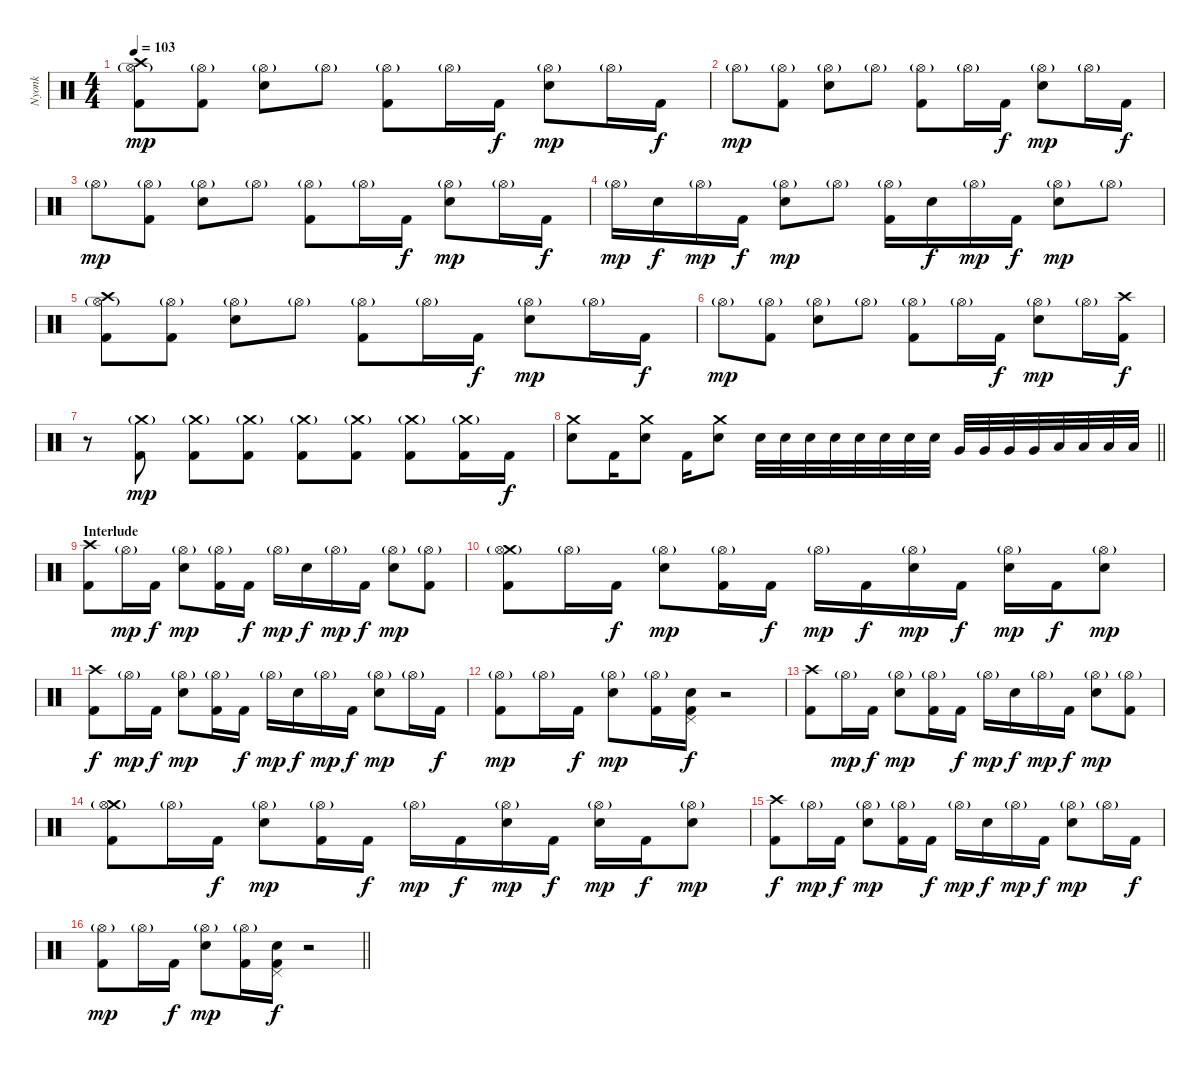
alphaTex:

\track ("Nyonk" "Nyonk") {instrument percussion}
\staff {score}
\articulation defaults
\ts (4 4)
\tempo 103
\clef neutral
\ks c
("Crash high (hit)" "Hi-Hat (open)"{g} "Kick (hit) 2").8{dy mp} ("Hi-Hat (open)"{g} "Kick (hit) 2").8 ("Hi-Hat (open)"{g} "Electric Snare (hit)").8 "Hi-Hat (open)"{g}.8 ("Hi-Hat (open)"{g} "Kick (hit) 2").8 "Hi-Hat (open)"{g}.16 "Kick (hit) 2".16{dy f} ("Hi-Hat (open)"{g} "Electric Snare (hit)").8{dy mp} "Hi-Hat (open)"{g}.16 "Kick (hit) 2".16{dy f} |
"Hi-Hat (open)"{g}.8{dy mp} ("Hi-Hat (open)"{g} "Kick (hit) 2").8 ("Hi-Hat (open)"{g} "Electric Snare (hit)").8 "Hi-Hat (open)"{g}.8 ("Hi-Hat (open)"{g} "Kick (hit) 2").8 "Hi-Hat (open)"{g}.16 "Kick (hit) 2".16{dy f} ("Hi-Hat (open)"{g} "Electric Snare (hit)").8{dy mp} "Hi-Hat (open)"{g}.16 "Kick (hit) 2".16{dy f} |
"Hi-Hat (open)"{g}.8{dy mp} ("Hi-Hat (open)"{g} "Kick (hit) 2").8 ("Hi-Hat (open)"{g} "Electric Snare (hit)").8 "Hi-Hat (open)"{g}.8 ("Hi-Hat (open)"{g} "Kick (hit) 2").8 "Hi-Hat (open)"{g}.16 "Kick (hit) 2".16{dy f} ("Hi-Hat (open)"{g} "Electric Snare (hit)").8{dy mp} "Hi-Hat (open)"{g}.16 "Kick (hit) 2".16{dy f} |
"Hi-Hat (open)"{g}.16{dy mp} "Electric Snare (hit)".16{dy f} "Hi-Hat (open)"{g}.16{dy mp} "Kick (hit) 2".16{dy f} ("Hi-Hat (open)"{g} "Electric Snare (hit)").8{dy mp} "Hi-Hat (open)"{g}.8 ("Hi-Hat (open)"{g} "Kick (hit) 2").16 "Electric Snare (hit)".16{dy f} "Hi-Hat (open)"{g}.16{dy mp} "Kick (hit) 2".16{dy f} ("Hi-Hat (open)"{g} "Electric Snare (hit)").8{dy mp} "Hi-Hat (open)"{g}.8 |
("Crash high (hit)" "Hi-Hat (open)"{g} "Kick (hit) 2").8 ("Hi-Hat (open)"{g} "Kick (hit) 2").8 ("Hi-Hat (open)"{g} "Electric Snare (hit)").8 "Hi-Hat (open)"{g}.8 ("Hi-Hat (open)"{g} "Kick (hit) 2").8 "Hi-Hat (open)"{g}.16 "Kick (hit) 2".16{dy f} ("Hi-Hat (open)"{g} "Electric Snare (hit)").8{dy mp} "Hi-Hat (open)"{g}.16 "Kick (hit) 2".16{dy f} |
"Hi-Hat (open)"{g}.8{dy mp} ("Hi-Hat (open)"{g} "Kick (hit) 2").8 ("Hi-Hat (open)"{g} "Electric Snare (hit)").8 "Hi-Hat (open)"{g}.8 ("Hi-Hat (open)"{g} "Kick (hit) 2").8 "Hi-Hat (open)"{g}.16 "Kick (hit) 2".16{dy f} ("Hi-Hat (open)"{g} "Electric Snare (hit)").8{dy mp} "Hi-Hat (open)"{g}.16 ("Crash high (hit)" "Kick (hit) 2").16{dy f} |
r.8 ("Crash medium (hit)"{g} "Kick (hit) 2").8{dy mp} ("Crash medium (hit)"{g} "Kick (hit) 2").8 ("Crash medium (hit)"{g} "Kick (hit) 2").8 ("Crash medium (hit)"{g} "Kick (hit) 2").8 ("Crash medium (hit)"{g} "Kick (hit) 2").8 ("Crash medium (hit)"{g} "Kick (hit) 2").8 ("Crash medium (hit)"{g} "Kick (hit) 2").16 "Kick (hit) 2".16{dy f} |
\barLineRight lightlight
("Crash medium (hit)" "Electric Snare (hit)").8 "Kick (hit) 2".16 ("Crash medium (hit)" "Electric Snare (hit)").8 "Kick (hit) 2".16 ("Crash medium (hit)" "Electric Snare (hit)").8 "Electric Snare (hit)".32 "Electric Snare (hit)".32 "Electric Snare (hit)".32 "Electric Snare (hit)".32 "Electric Snare (hit)".32 "Electric Snare (hit)".32 "Electric Snare (hit)".32 "Electric Snare (hit)".32 "Very Low Tom (hit)".32 "Very Low Tom (hit)".32 "Very Low Tom (hit)".32 "Very Low Tom (hit)".32 "Low Floor Tom (hit)".32 "Low Floor Tom (hit)".32 "Low Floor Tom (hit)".32 "Low Floor Tom (hit)".32 |
\section ("" "Interlude")
("Crash high (hit)" "Kick (hit) 2").8 "Hi-Hat (open)"{g}.16{dy mp} "Kick (hit) 2".16{dy f} ("Hi-Hat (open)"{g} "Electric Snare (hit)").8{dy mp} ("Hi-Hat (open)"{g} "Kick (hit) 2").16 "Kick (hit) 2".16{dy f} "Hi-Hat (open)"{g}.16{dy mp} "Electric Snare (hit)".16{dy f} "Hi-Hat (open)"{g}.16{dy mp} "Kick (hit) 2".16{dy f} ("Hi-Hat (open)"{g} "Electric Snare (hit)").8{dy mp} ("Hi-Hat (open)"{g} "Kick (hit) 2").8 |
("Crash medium (hit)" "Hi-Hat (open)"{g} "Kick (hit) 2").8 "Hi-Hat (open)"{g}.16 "Kick (hit) 2".16{dy f} ("Hi-Hat (open)"{g} "Electric Snare (hit)").8{dy mp} ("Hi-Hat (open)"{g} "Kick (hit) 2").16 "Kick (hit) 2".16{dy f} "Hi-Hat (open)"{g}.16{dy mp} "Kick (hit) 2".16{dy f} ("Hi-Hat (open)"{g} "Electric Snare (hit)").16{dy mp} "Kick (hit) 2".16{dy f} ("Hi-Hat (open)"{g} "Electric Snare (hit)").16{dy mp} "Kick (hit) 2".16{dy f} ("Hi-Hat (open)"{g} "Electric Snare (hit)").8{dy mp} |
("Crash high (hit)" "Kick (hit) 2").8{dy f} "Hi-Hat (open)"{g}.16{dy mp} "Kick (hit) 2".16{dy f} ("Hi-Hat (open)"{g} "Electric Snare (hit)").8{dy mp} ("Hi-Hat (open)"{g} "Kick (hit) 2").16 "Kick (hit) 2".16{dy f} "Hi-Hat (open)"{g}.16{dy mp} "Electric Snare (hit)".16{dy f} "Hi-Hat (open)"{g}.16{dy mp} "Kick (hit) 2".16{dy f} ("Hi-Hat (open)"{g} "Electric Snare (hit)").8{dy mp} "Hi-Hat (open)"{g}.16 "Kick (hit) 2".16{dy f} |
("Hi-Hat (open)"{g} "Kick (hit) 2").8{dy mp} "Hi-Hat (open)"{g}.16 "Kick (hit) 2".16{dy f} ("Hi-Hat (open)"{g} "Electric Snare (hit)").8{dy mp} ("Hi-Hat (open)"{g} "Kick (hit) 2").16 ("Pedal Hi-Hat (hit)" "Electric Snare (hit)" "Kick (hit) 2").16{dy f} r.2 |
("Crash high (hit)" "Kick (hit) 2").8 "Hi-Hat (open)"{g}.16{dy mp} "Kick (hit) 2".16{dy f} ("Hi-Hat (open)"{g} "Electric Snare (hit)").8{dy mp} ("Hi-Hat (open)"{g} "Kick (hit) 2").16 "Kick (hit) 2".16{dy f} "Hi-Hat (open)"{g}.16{dy mp} "Electric Snare (hit)".16{dy f} "Hi-Hat (open)"{g}.16{dy mp} "Kick (hit) 2".16{dy f} ("Hi-Hat (open)"{g} "Electric Snare (hit)").8{dy mp} ("Hi-Hat (open)"{g} "Kick (hit) 2").8 |
("Crash medium (hit)" "Hi-Hat (open)"{g} "Kick (hit) 2").8 "Hi-Hat (open)"{g}.16 "Kick (hit) 2".16{dy f} ("Hi-Hat (open)"{g} "Electric Snare (hit)").8{dy mp} ("Hi-Hat (open)"{g} "Kick (hit) 2").16 "Kick (hit) 2".16{dy f} "Hi-Hat (open)"{g}.16{dy mp} "Kick (hit) 2".16{dy f} ("Hi-Hat (open)"{g} "Electric Snare (hit)").16{dy mp} "Kick (hit) 2".16{dy f} ("Hi-Hat (open)"{g} "Electric Snare (hit)").16{dy mp} "Kick (hit) 2".16{dy f} ("Hi-Hat (open)"{g} "Electric Snare (hit)").8{dy mp} |
("Crash high (hit)" "Kick (hit) 2").8{dy f} "Hi-Hat (open)"{g}.16{dy mp} "Kick (hit) 2".16{dy f} ("Hi-Hat (open)"{g} "Electric Snare (hit)").8{dy mp} ("Hi-Hat (open)"{g} "Kick (hit) 2").16 "Kick (hit) 2".16{dy f} "Hi-Hat (open)"{g}.16{dy mp} "Electric Snare (hit)".16{dy f} "Hi-Hat (open)"{g}.16{dy mp} "Kick (hit) 2".16{dy f} ("Hi-Hat (open)"{g} "Electric Snare (hit)").8{dy mp} "Hi-Hat (open)"{g}.16 "Kick (hit) 2".16{dy f} |
\barLineRight lightlight
("Hi-Hat (open)"{g} "Kick (hit) 2").8{dy mp} "Hi-Hat (open)"{g}.16 "Kick (hit) 2".16{dy f} ("Hi-Hat (open)"{g} "Electric Snare (hit)").8{dy mp} ("Hi-Hat (open)"{g} "Kick (hit) 2").16 ("Pedal Hi-Hat (hit)" "Electric Snare (hit)" "Kick (hit) 2").16{dy f} r.2
